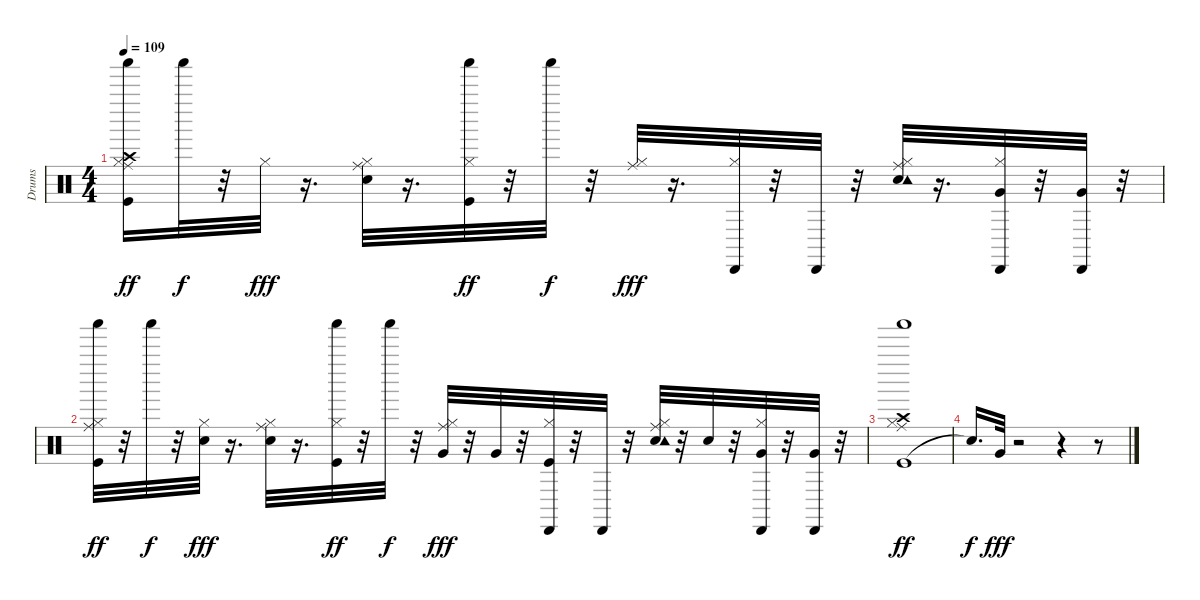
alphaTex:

\track ("Drums               " "Drums     ") {instrument percussion}
\staff {score}
\articulation defaults
\ts (4 4)
\tempo 109
\clef neutral
\ks c
("Kick (hit)" "Hi-Hat (closed)" "Crash high (hit)" "Ride (middle)" "Shaker (hit)").16{dy ff} "Shaker (hit)".32{dy f} r.32 "Hi-Hat (closed)".32{dy fff} r.16{d} ("Electric Snare (hit)" "Hi-Hat (closed)" "Ride (middle)").32 r.16{d} ("Kick (hit)" "Hi-Hat (closed)" "Shaker (hit)").32{dy ff} r.32 "Shaker (hit)".32{dy f} r.32 ("Hi-Hat (closed)" "Ride (middle)").32{dy fff} r.16{d} ("Hi-Hat (closed)" "Cabasa (hit)").32 r.32 "Cabasa (hit)".32 r.32 ("Electric Snare (hit)" "Hi-Hat (closed)" "Ride (middle)" "Tambourine (hit)").32 r.16{d} ("Hi-Hat (closed)" "Very Low Tom (hit)" "Cabasa (hit)").32 r.32 ("Very Low Tom (hit)" "Cabasa (hit)").32 r.32 |
("Kick (hit)" "Hi-Hat (closed)" "Ride (middle)" "Shaker (hit)").32{dy ff} r.32 "Shaker (hit)".32{dy f} r.32 ("Electric Snare (hit)" "Hi-Hat (closed)").32{dy fff} r.16{d} ("Electric Snare (hit)" "Hi-Hat (closed)" "Ride (middle)").32 r.16{d} ("Kick (hit)" "Hi-Hat (closed)" "Shaker (hit)").32{dy ff} r.32 "Shaker (hit)".32{dy f} r.32 ("Hi-Hat (closed)" "Very Low Tom (hit)" "Ride (middle)").32{dy fff} r.32 "Very Low Tom (hit)".32 r.32 ("Kick (hit)" "Hi-Hat (closed)" "Cabasa (hit)").32 r.32 "Cabasa (hit)".32 r.32 ("Electric Snare (hit)" "Hi-Hat (closed)" "Ride (middle)" "Tambourine (hit)").32 r.32 "Electric Snare (hit)".32 r.32 ("Hi-Hat (closed)" "Very Low Tom (hit)" "Cabasa (hit)").32 r.32 ("Very Low Tom (hit)" "Cabasa (hit)").32 r.32 |
("Kick (hit)" "Hi-Hat (closed)" "Crash high (hit)" "Ride (middle)" "Shaker (hit)").1{dy ff} |
"Snare (hit)"{t}.16{d dy f} "Very Low Tom (hit)".32{dy fff} r.2 r.4 r.8
